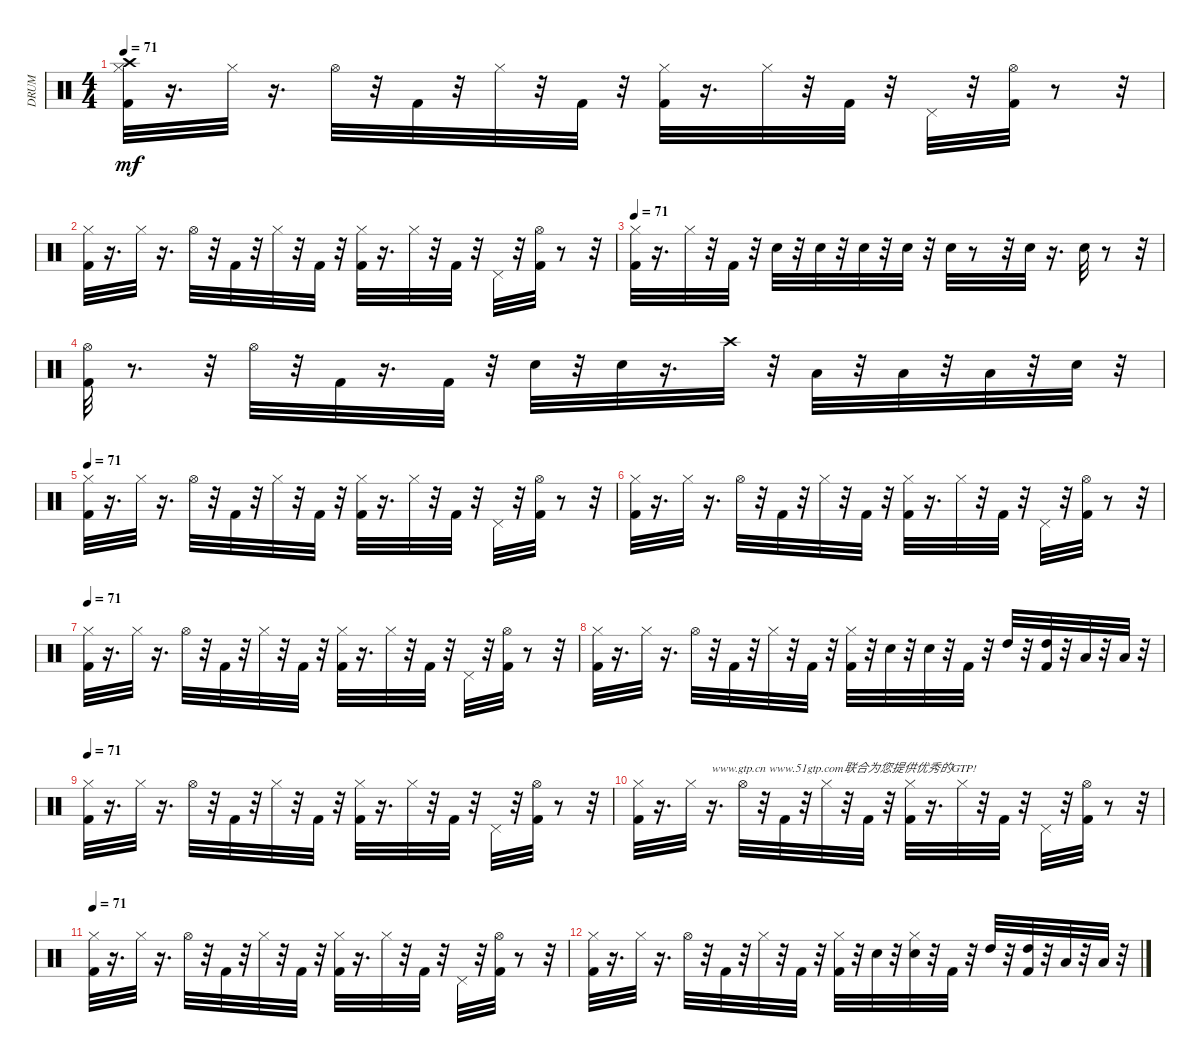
\track ("DRUM" "DRUM") {instrument percussion}
\staff {score}
\articulation defaults
\ts (4 4)
\tempo 71
\clef neutral
\ks c
("Kick (hit) 2" "Hi-Hat (closed)" "Crash high (hit)").32{dy mf} r.16{d} "Hi-Hat (closed)".32 r.16{d} "Hi-Hat (open)".32 r.32 "Kick (hit) 2".32 r.32 "Hi-Hat (closed)".32 r.32 "Kick (hit) 2".32 r.32 ("Kick (hit) 2" "Hi-Hat (closed)").32 r.16{d} "Hi-Hat (closed)".32 r.32 "Kick (hit) 2".32 r.32 "Pedal Hi-Hat (hit)".32 r.32 ("Kick (hit) 2" "Hi-Hat (open)").32 r.8 r.32 |
("Kick (hit) 2" "Hi-Hat (closed)").32 r.16{d} "Hi-Hat (closed)".32 r.16{d} "Hi-Hat (open)".32 r.32 "Kick (hit) 2".32 r.32 "Hi-Hat (closed)".32 r.32 "Kick (hit) 2".32 r.32 ("Kick (hit) 2" "Hi-Hat (closed)").32 r.16{d} "Hi-Hat (closed)".32 r.32 "Kick (hit) 2".32 r.32 "Pedal Hi-Hat (hit)".32 r.32 ("Kick (hit) 2" "Hi-Hat (open)").32 r.8 r.32 |
\tempo 71
("Kick (hit) 2" "Hi-Hat (closed)").32 r.16{d} "Hi-Hat (closed)".32 r.32 "Kick (hit) 2".32 r.32 "Snare (hit) 2".32 r.32 "Snare (hit) 2".32 r.32 "Snare (hit) 2".32 r.32 "Snare (hit) 2".32 r.32 "Snare (hit) 2".32 r.8 r.32 "Snare (hit) 2".32 r.16{d} "Snare (hit) 2".32 r.8 r.32 |
("Kick (hit) 2" "Hi-Hat (open)").32 r.8{d} r.32 "Hi-Hat (open)".32 r.32 "Kick (hit) 2".32 r.16{d} "Kick (hit) 2".32 r.32 "Snare (hit) 2".32 r.32 "Snare (hit) 2".32 r.16{d} "Crash high (hit)".32 r.32 "Low Tom (hit)".32 r.32 "Low Tom (hit)".32 r.32 "Low Floor Tom (hit)".32 r.32 "Snare (hit) 2".32 r.32 |
\tempo 71
("Kick (hit) 2" "Hi-Hat (closed)").32{volume 14} r.16{d} "Hi-Hat (closed)".32 r.16{d} "Hi-Hat (open)".32 r.32 "Kick (hit) 2".32{volume 14} r.32 "Hi-Hat (closed)".32 r.32 "Kick (hit) 2".32 r.32 ("Kick (hit) 2" "Hi-Hat (closed)").32 r.16{d} "Hi-Hat (closed)".32{volume 14} r.32 "Kick (hit) 2".32 r.32 "Pedal Hi-Hat (hit)".32{volume 14} r.32 ("Kick (hit) 2" "Hi-Hat (open)").32 r.8 r.32 |
("Kick (hit) 2" "Hi-Hat (closed)").32{volume 14} r.16{d} "Hi-Hat (closed)".32 r.16{d} "Hi-Hat (open)".32{volume 14} r.32 "Kick (hit) 2".32 r.32 "Hi-Hat (closed)".32 r.32 "Kick (hit) 2".32 r.32 ("Kick (hit) 2" "Hi-Hat (closed)").32{volume 14} r.16{d} "Hi-Hat (closed)".32{volume 14} r.32 "Kick (hit) 2".32 r.32 "Pedal Hi-Hat (hit)".32 r.32 ("Kick (hit) 2" "Hi-Hat (open)").32{volume 13} r.8 r.32 |
\tempo 71
("Kick (hit) 2" "Hi-Hat (closed)").32 r.16{d} "Hi-Hat (closed)".32{volume 13} r.16{d} "Hi-Hat (open)".32 r.32 "Kick (hit) 2".32 r.32 "Hi-Hat (closed)".32{volume 13} r.32 "Kick (hit) 2".32 r.32 ("Kick (hit) 2" "Hi-Hat (closed)").32{volume 13} r.16{d} "Hi-Hat (closed)".32 r.32 "Kick (hit) 2".32{volume 13} r.32 "Pedal Hi-Hat (hit)".32 r.32 ("Kick (hit) 2" "Hi-Hat (open)").32{volume 13} r.8 r.32 |
("Kick (hit) 2" "Hi-Hat (closed)").32{volume 13} r.16{d} "Hi-Hat (closed)".32{volume 12} r.16{d} "Hi-Hat (open)".32{volume 12} r.32 "Kick (hit) 2".32 r.32 "Hi-Hat (closed)".32 r.32 "Kick (hit) 2".32{volume 12} r.32 ("Kick (hit) 2" "Hi-Hat (closed)").32 r.32 "Snare (hit) 2".32{volume 12} r.32 "Snare (hit) 2".32 r.32 "Kick (hit) 2".32{volume 12} r.32 "High Tom (hit)".32 r.32 ("Kick (hit) 2" "High Tom (hit)").32 r.32 "Low Tom (hit)".32 r.32 "Low Floor Tom (hit)".32{volume 12} r.32 |
\tempo 71
("Kick (hit) 2" "Hi-Hat (closed)").32 r.16{d} "Hi-Hat (closed)".32{volume 12} r.16{d} "Hi-Hat (open)".32{volume 12} r.32 "Kick (hit) 2".32{volume 11} r.32 "Hi-Hat (closed)".32 r.32 "Kick (hit) 2".32{volume 11} r.32 ("Kick (hit) 2" "Hi-Hat (closed)").32 r.16{d} "Hi-Hat (closed)".32{volume 11} r.32 "Kick (hit) 2".32 r.32 "Pedal Hi-Hat (hit)".32{volume 11} r.32 ("Kick (hit) 2" "Hi-Hat (open)").32 r.8 r.32 |
("Kick (hit) 2" "Hi-Hat (closed)").32{volume 11} r.16{d} "Hi-Hat (closed)".32{volume 10} r.16{d txt "www.gtp.cn www.51gtp.com联合为您提供优秀的GTP!"} "Hi-Hat (open)".32{volume 10} r.32 "Kick (hit) 2".32{volume 10} r.32 "Hi-Hat (closed)".32{volume 10} r.32 "Kick (hit) 2".32{volume 10} r.32 ("Kick (hit) 2" "Hi-Hat (closed)").32{volume 10} r.16{d} "Hi-Hat (closed)".32{volume 10} r.32 "Kick (hit) 2".32{volume 9} r.32 "Pedal Hi-Hat (hit)".32{volume 9} r.32 ("Kick (hit) 2" "Hi-Hat (open)").32{volume 9} r.8 r.32 |
\tempo 71
("Kick (hit) 2" "Hi-Hat (closed)").32{volume 8} r.16{d} "Hi-Hat (closed)".32{volume 8} r.16{d} "Hi-Hat (open)".32{volume 8} r.32 "Kick (hit) 2".32{volume 8} r.32 "Hi-Hat (closed)".32{volume 7} r.32 "Kick (hit) 2".32{volume 7} r.32 ("Kick (hit) 2" "Hi-Hat (closed)").32{volume 7} r.16{d} "Hi-Hat (closed)".32{volume 6} r.32 "Kick (hit) 2".32{volume 6} r.32 "Pedal Hi-Hat (hit)".32{volume 5} r.32 ("Kick (hit) 2" "Hi-Hat (open)").32{volume 4} r.8 r.32 |
("Kick (hit) 2" "Hi-Hat (closed)").32{volume 1} r.16{d} "Hi-Hat (closed)".32{volume 0} r.16{d} "Hi-Hat (open)".32 r.32 "Kick (hit) 2".32 r.32 "Hi-Hat (closed)".32 r.32 "Kick (hit) 2".32 r.32 ("Kick (hit) 2" "Hi-Hat (closed)").32 r.32 "Snare (hit) 2".32 r.32 ("Snare (hit) 2" "Hi-Hat (closed)").32 r.32 "Kick (hit) 2".32 r.32 "High Tom (hit)".32 r.32 ("Kick (hit) 2" "High Tom (hit)").32 r.32 "Low Tom (hit)".32 r.32 "Low Floor Tom (hit)".32 r.32
